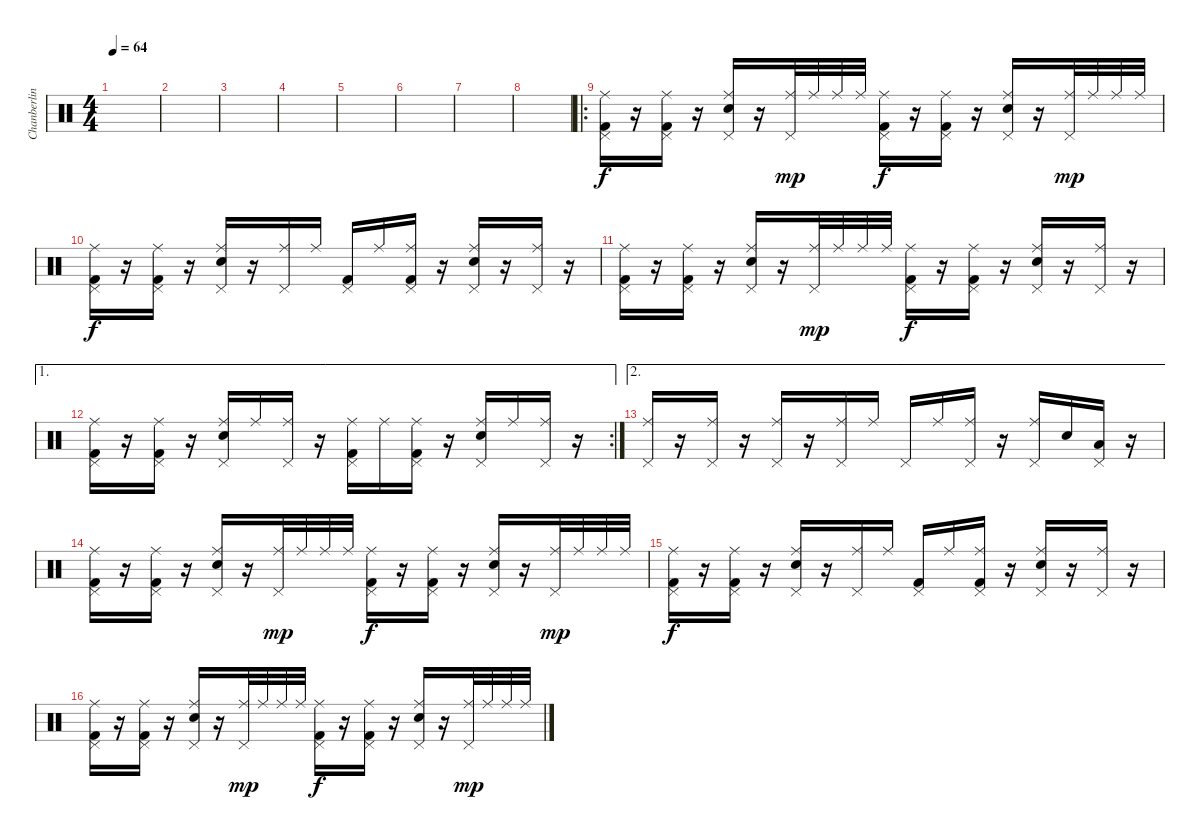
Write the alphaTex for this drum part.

\track ("Chanberlin" "Chanberlin") {instrument percussion}
\staff {score}
\articulation defaults
\ts (4 4)
\tempo 64
\clef neutral
\ks c
|
|
|
|
|
|
|
|
\ro
("Ride (middle)" "Pedal Hi-Hat (hit)" "Kick (hit) 2").16{volume 6} r.16 ("Ride (middle)" "Pedal Hi-Hat (hit)" "Kick (hit) 2").16 r.16 ("Ride (middle)" "Pedal Hi-Hat (hit)" "Snare (hit) 2").16 r.16 ("Ride (middle)" "Pedal Hi-Hat (hit)").32{dy mp} "Ride (middle)".32 "Ride (middle)".32 "Ride (middle)".32 ("Ride (middle)" "Pedal Hi-Hat (hit)" "Kick (hit) 2").16{dy f} r.16 ("Ride (middle)" "Pedal Hi-Hat (hit)" "Kick (hit) 2").16 r.16 ("Ride (middle)" "Pedal Hi-Hat (hit)" "Snare (hit) 2").16 r.16 ("Ride (middle)" "Pedal Hi-Hat (hit)").32{dy mp} "Ride (middle)".32 "Ride (middle)".32 "Ride (middle)".32 |
("Ride (middle)" "Pedal Hi-Hat (hit)" "Kick (hit) 2").16{dy f} r.16 ("Ride (middle)" "Pedal Hi-Hat (hit)" "Kick (hit) 2").16 r.16 ("Ride (middle)" "Pedal Hi-Hat (hit)" "Snare (hit) 2").16 r.16 ("Ride (middle)" "Pedal Hi-Hat (hit)").16 "Ride (middle)".16 ("Pedal Hi-Hat (hit)" "Kick (hit) 2").16 "Ride (middle)".16 ("Ride (middle)" "Pedal Hi-Hat (hit)" "Kick (hit) 2").16 r.16 ("Ride (middle)" "Pedal Hi-Hat (hit)" "Snare (hit) 2").16 r.16 ("Ride (middle)" "Pedal Hi-Hat (hit)").16 r.16 |
("Ride (middle)" "Pedal Hi-Hat (hit)" "Kick (hit) 2").16 r.16 ("Ride (middle)" "Pedal Hi-Hat (hit)" "Kick (hit) 2").16 r.16 ("Ride (middle)" "Pedal Hi-Hat (hit)" "Snare (hit) 2").16 r.16 ("Ride (middle)" "Pedal Hi-Hat (hit)").32{dy mp} "Ride (middle)".32 "Ride (middle)".32 "Ride (middle)".32 ("Ride (middle)" "Pedal Hi-Hat (hit)" "Kick (hit) 2").16{dy f} r.16 ("Ride (middle)" "Pedal Hi-Hat (hit)" "Kick (hit) 2").16 r.16 ("Ride (middle)" "Pedal Hi-Hat (hit)" "Snare (hit) 2").16 r.16 ("Ride (middle)" "Pedal Hi-Hat (hit)").16 r.16 |
\ae 1
\rc 2
("Ride (middle)" "Pedal Hi-Hat (hit)" "Kick (hit) 2").16 r.16 ("Ride (middle)" "Pedal Hi-Hat (hit)" "Kick (hit) 2").16 r.16 ("Ride (middle)" "Pedal Hi-Hat (hit)" "Snare (hit) 2").16 "Ride (middle)".16 ("Ride (middle)" "Pedal Hi-Hat (hit)").16 r.16 ("Ride (middle)" "Pedal Hi-Hat (hit)" "Kick (hit) 2").16 "Ride (middle)".16 ("Ride (middle)" "Pedal Hi-Hat (hit)" "Kick (hit) 2").16 r.16 ("Ride (middle)" "Pedal Hi-Hat (hit)" "Snare (hit) 2").16 "Ride (middle)".16 ("Ride (middle)" "Pedal Hi-Hat (hit)").16 r.16 |
\ae 2
("Ride (middle)" "Pedal Hi-Hat (hit)").16 r.16 ("Ride (middle)" "Pedal Hi-Hat (hit)").16 r.16 ("Ride (middle)" "Pedal Hi-Hat (hit)").16 r.16 ("Ride (middle)" "Pedal Hi-Hat (hit)").16 "Ride (middle)".16 "Pedal Hi-Hat (hit)".16 "Ride (middle)".16 ("Ride (middle)" "Pedal Hi-Hat (hit)").16 r.16 ("Ride (middle)" "Pedal Hi-Hat (hit)").16 "Snare (hit) 2".16 ("Pedal Hi-Hat (hit)" "Low Tom (hit)").16 r.16 |
("Ride (middle)" "Pedal Hi-Hat (hit)" "Kick (hit) 2").16 r.16 ("Ride (middle)" "Pedal Hi-Hat (hit)" "Kick (hit) 2").16 r.16 ("Ride (middle)" "Pedal Hi-Hat (hit)" "Snare (hit) 2").16 r.16 ("Ride (middle)" "Pedal Hi-Hat (hit)").32{dy mp} "Ride (middle)".32 "Ride (middle)".32 "Ride (middle)".32 ("Ride (middle)" "Pedal Hi-Hat (hit)" "Kick (hit) 2").16{dy f} r.16 ("Ride (middle)" "Pedal Hi-Hat (hit)" "Kick (hit) 2").16 r.16 ("Ride (middle)" "Pedal Hi-Hat (hit)" "Snare (hit) 2").16 r.16 ("Ride (middle)" "Pedal Hi-Hat (hit)").32{dy mp} "Ride (middle)".32 "Ride (middle)".32 "Ride (middle)".32 |
("Ride (middle)" "Pedal Hi-Hat (hit)" "Kick (hit) 2").16{dy f} r.16 ("Ride (middle)" "Pedal Hi-Hat (hit)" "Kick (hit) 2").16 r.16 ("Ride (middle)" "Pedal Hi-Hat (hit)" "Snare (hit) 2").16 r.16 ("Ride (middle)" "Pedal Hi-Hat (hit)").16 "Ride (middle)".16 ("Pedal Hi-Hat (hit)" "Kick (hit) 2").16 "Ride (middle)".16 ("Ride (middle)" "Pedal Hi-Hat (hit)" "Kick (hit) 2").16 r.16 ("Ride (middle)" "Pedal Hi-Hat (hit)" "Snare (hit) 2").16 r.16 ("Ride (middle)" "Pedal Hi-Hat (hit)").16 r.16 |
("Ride (middle)" "Pedal Hi-Hat (hit)" "Kick (hit) 2").16 r.16 ("Ride (middle)" "Pedal Hi-Hat (hit)" "Kick (hit) 2").16 r.16 ("Ride (middle)" "Pedal Hi-Hat (hit)" "Snare (hit) 2").16 r.16 ("Ride (middle)" "Pedal Hi-Hat (hit)").32{dy mp} "Ride (middle)".32 "Ride (middle)".32 "Ride (middle)".32 ("Ride (middle)" "Pedal Hi-Hat (hit)" "Kick (hit) 2").16{dy f} r.16 ("Ride (middle)" "Pedal Hi-Hat (hit)" "Kick (hit) 2").16 r.16 ("Ride (middle)" "Pedal Hi-Hat (hit)" "Snare (hit) 2").16 r.16 ("Ride (middle)" "Pedal Hi-Hat (hit)").32{dy mp} "Ride (middle)".32 "Ride (middle)".32 "Ride (middle)".32
